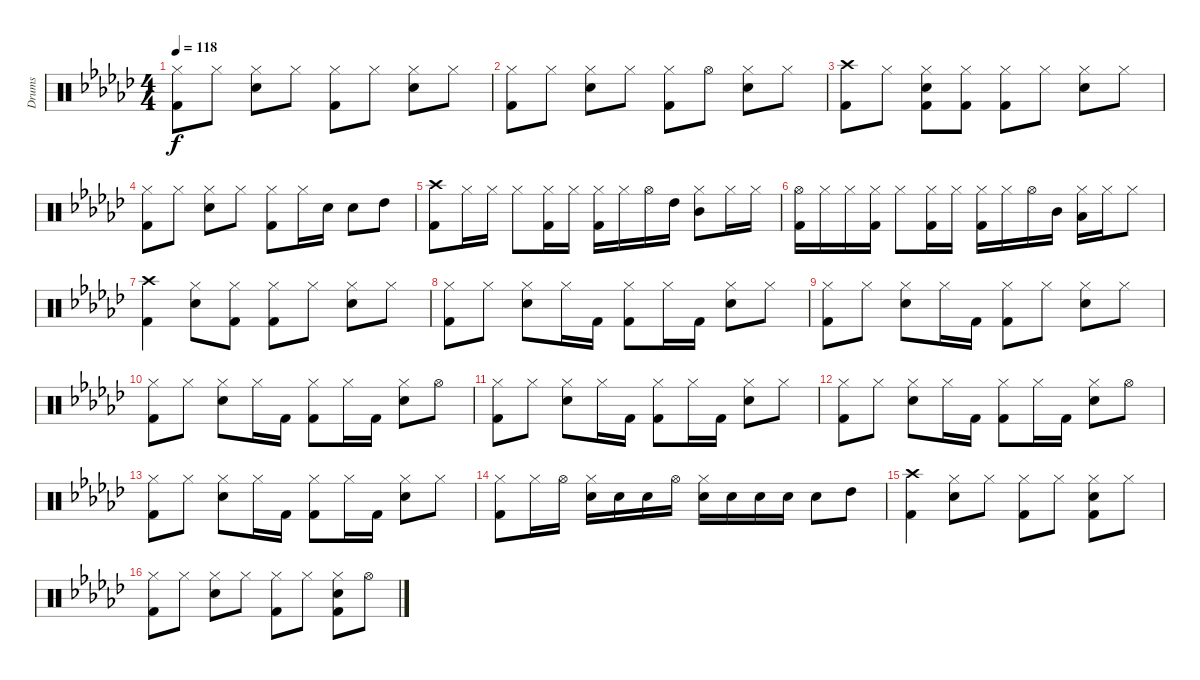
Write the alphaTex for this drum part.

\track ("Drums" "Drums") {instrument percussion}
\staff {score}
\articulation defaults
\ts (4 4)
\tempo 118
\clef neutral
\ks ebminor
("Hi-Hat (closed)" "Kick (hit) 2").8{dy f} "Hi-Hat (closed)".8 ("Hi-Hat (closed)" "Electric Snare (hit)").8 "Hi-Hat (closed)".8 ("Hi-Hat (closed)" "Kick (hit) 2").8 "Hi-Hat (closed)".8 ("Hi-Hat (closed)" "Electric Snare (hit)").8 "Hi-Hat (closed)".8 |
("Hi-Hat (closed)" "Kick (hit) 2").8 "Hi-Hat (closed)".8 ("Hi-Hat (closed)" "Electric Snare (hit)").8 "Hi-Hat (closed)".8 ("Hi-Hat (closed)" "Kick (hit) 2").8 "Hi-Hat (open)".8 ("Hi-Hat (closed)" "Electric Snare (hit)").8 "Hi-Hat (closed)".8 |
("Crash high (hit)" "Kick (hit) 2").8 "Hi-Hat (closed)".8 ("Hi-Hat (closed)" "Electric Snare (hit)" "Kick (hit) 2").8 ("Hi-Hat (closed)" "Kick (hit) 2").8 ("Hi-Hat (closed)" "Kick (hit) 2").8 "Hi-Hat (closed)".8 ("Hi-Hat (closed)" "Electric Snare (hit)").8 "Hi-Hat (closed)".8 |
("Hi-Hat (closed)" "Kick (hit) 2").8 "Hi-Hat (closed)".8 ("Hi-Hat (closed)" "Electric Snare (hit)").8 "Hi-Hat (closed)".8 ("Hi-Hat (closed)" "Kick (hit) 2").8 "Hi-Hat (closed)".16 "Electric Snare (hit)".16 "Electric Snare (hit)".8 "High Tom (hit)".8 |
("Crash high (hit)" "Kick (hit) 2").8 "Hi-Hat (closed)".16 "Hi-Hat (closed)".16 "Hi-Hat (closed)".8 ("Hi-Hat (closed)" "Kick (hit) 2").16 "Hi-Hat (closed)".16 ("Hi-Hat (closed)" "Kick (hit) 2").16 "Hi-Hat (closed)".16 "Hi-Hat (open)".16 "High Tom (hit)".16 ("Hi-Hat (closed)" "Mid Tom (hit)").8 "Hi-Hat (closed)".16 "Hi-Hat (closed)".16 |
("Hi-Hat (open)" "Kick (hit) 2").16 "Hi-Hat (closed)".16 "Hi-Hat (closed)".16 ("Hi-Hat (closed)" "Kick (hit) 2").16 "Hi-Hat (closed)".8 ("Hi-Hat (closed)" "Kick (hit) 2").16 "Hi-Hat (closed)".16 ("Hi-Hat (closed)" "Kick (hit) 2").16 "Hi-Hat (closed)".16 "Hi-Hat (open)".16 "Mid Tom (hit)".16 ("Hi-Hat (closed)" "Low Tom (hit)").16 "Hi-Hat (closed)".16 "Hi-Hat (closed)".8 |
("Crash high (hit)" "Kick (hit) 2").4 ("Hi-Hat (closed)" "Electric Snare (hit)").8 ("Hi-Hat (closed)" "Kick (hit) 2").8 ("Hi-Hat (closed)" "Kick (hit) 2").8 "Hi-Hat (closed)".8 ("Hi-Hat (closed)" "Electric Snare (hit)").8 "Hi-Hat (closed)".8 |
("Hi-Hat (closed)" "Kick (hit) 2").8 "Hi-Hat (closed)".8 ("Hi-Hat (closed)" "Electric Snare (hit)").8 "Hi-Hat (closed)".16 "Kick (hit) 2".16 ("Hi-Hat (closed)" "Kick (hit) 2").8 "Hi-Hat (closed)".16 "Kick (hit) 2".16 ("Hi-Hat (closed)" "Electric Snare (hit)").8 "Hi-Hat (closed)".8 |
("Hi-Hat (closed)" "Kick (hit) 2").8 "Hi-Hat (closed)".8 ("Hi-Hat (closed)" "Electric Snare (hit)").8 "Hi-Hat (closed)".16 "Kick (hit) 2".16 ("Hi-Hat (closed)" "Kick (hit) 2").8 "Hi-Hat (closed)".8 ("Hi-Hat (closed)" "Electric Snare (hit)").8 "Hi-Hat (closed)".8 |
("Hi-Hat (closed)" "Kick (hit) 2").8 "Hi-Hat (closed)".8 ("Hi-Hat (closed)" "Electric Snare (hit)").8 "Hi-Hat (closed)".16 "Kick (hit) 2".16 ("Hi-Hat (closed)" "Kick (hit) 2").8 "Hi-Hat (closed)".16 "Kick (hit) 2".16 ("Hi-Hat (closed)" "Electric Snare (hit)").8 "Hi-Hat (open)".8 |
("Hi-Hat (closed)" "Kick (hit) 2").8 "Hi-Hat (closed)".8 ("Hi-Hat (closed)" "Electric Snare (hit)").8 "Hi-Hat (closed)".16 "Kick (hit) 2".16 ("Hi-Hat (closed)" "Kick (hit) 2").8 "Hi-Hat (closed)".16 "Kick (hit) 2".16 ("Hi-Hat (closed)" "Electric Snare (hit)").8 "Hi-Hat (closed)".8 |
("Hi-Hat (closed)" "Kick (hit) 2").8 "Hi-Hat (closed)".8 ("Hi-Hat (closed)" "Electric Snare (hit)").8 "Hi-Hat (closed)".16 "Kick (hit) 2".16 ("Hi-Hat (closed)" "Kick (hit) 2").8 "Hi-Hat (closed)".16 "Kick (hit) 2".16 ("Hi-Hat (closed)" "Electric Snare (hit)").8 "Hi-Hat (open)".8 |
("Hi-Hat (closed)" "Kick (hit) 2").8 "Hi-Hat (closed)".8 ("Hi-Hat (closed)" "Electric Snare (hit)").8 "Hi-Hat (closed)".16 "Kick (hit) 2".16 ("Hi-Hat (closed)" "Kick (hit) 2").8 "Hi-Hat (closed)".16 "Kick (hit) 2".16 ("Hi-Hat (closed)" "Electric Snare (hit)").8 "Hi-Hat (closed)".8 |
("Hi-Hat (closed)" "Kick (hit) 2").8 "Hi-Hat (closed)".16 "Hi-Hat (open)".16 ("Hi-Hat (closed)" "Electric Snare (hit)").16 "Electric Snare (hit)".16 "Electric Snare (hit)".16 "Hi-Hat (open)".16 ("Hi-Hat (closed)" "Electric Snare (hit)").16 "Electric Snare (hit)".16 "Electric Snare (hit)".16 "Electric Snare (hit)".16 "Electric Snare (hit)".8 "High Tom (hit)".8 |
("Crash high (hit)" "Kick (hit) 2").4 ("Hi-Hat (closed)" "Electric Snare (hit)").8 "Hi-Hat (closed)".8 ("Hi-Hat (closed)" "Kick (hit) 2").8 "Hi-Hat (closed)".8 ("Hi-Hat (closed)" "Electric Snare (hit)" "Kick (hit) 2").8 "Hi-Hat (closed)".8 |
("Hi-Hat (closed)" "Kick (hit) 2").8 "Hi-Hat (closed)".8 ("Hi-Hat (closed)" "Electric Snare (hit)").8 "Hi-Hat (closed)".8 ("Hi-Hat (closed)" "Kick (hit) 2").8 "Hi-Hat (closed)".8 ("Hi-Hat (closed)" "Electric Snare (hit)" "Kick (hit) 2").8 "Hi-Hat (open)".8
